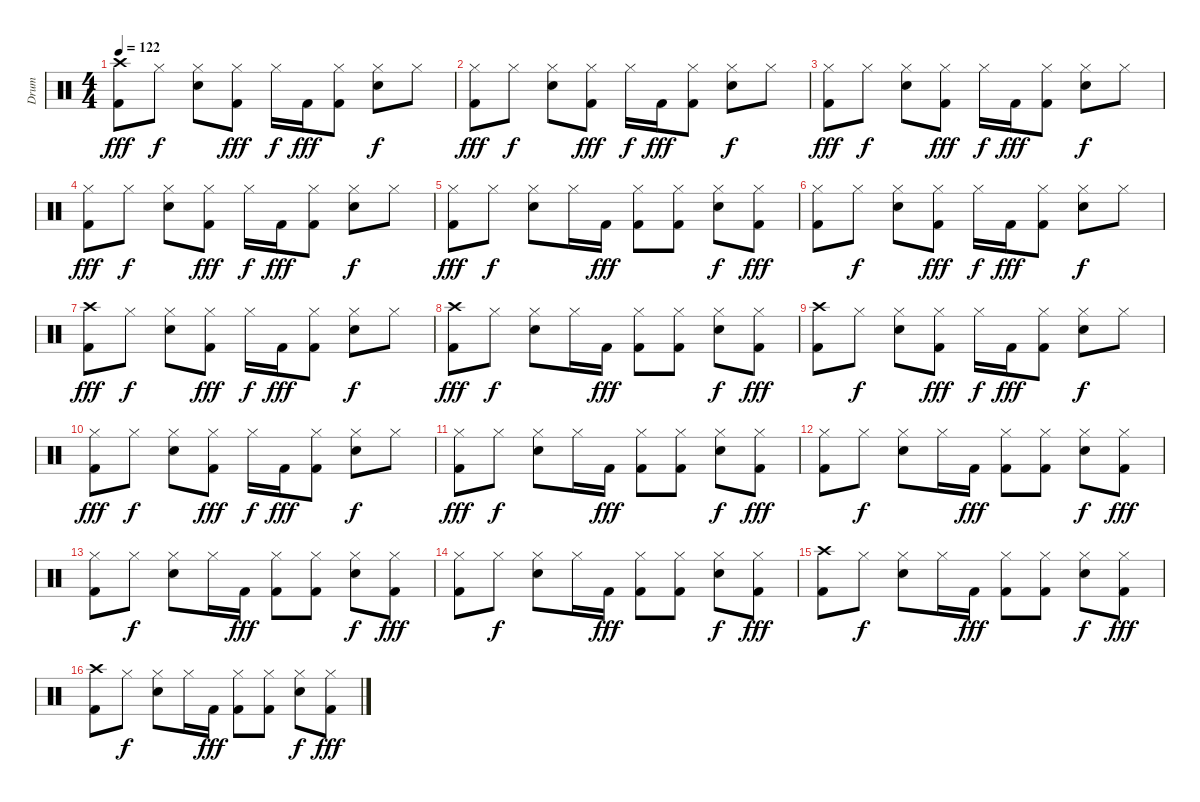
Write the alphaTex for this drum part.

\track ("Drum" "Drum") {instrument percussion}
\staff {score}
\articulation defaults
\ts (4 4)
\tempo 122
\clef neutral
\ks c
("Crash high (hit)" "Kick (hit) 2").8{dy fff} "Hi-Hat (closed)".8{dy f} ("Hi-Hat (closed)" "Snare (hit) 2").8 ("Hi-Hat (closed)" "Kick (hit) 2").8{dy fff} "Hi-Hat (closed)".16{dy f} "Kick (hit) 2".16{dy fff} ("Hi-Hat (closed)" "Kick (hit) 2").8 ("Hi-Hat (closed)" "Snare (hit) 2").8{dy f} "Hi-Hat (closed)".8 |
("Hi-Hat (closed)" "Kick (hit) 2").8{dy fff} "Hi-Hat (closed)".8{dy f} ("Hi-Hat (closed)" "Snare (hit) 2").8 ("Hi-Hat (closed)" "Kick (hit) 2").8{dy fff} "Hi-Hat (closed)".16{dy f} "Kick (hit) 2".16{dy fff} ("Hi-Hat (closed)" "Kick (hit) 2").8 ("Hi-Hat (closed)" "Snare (hit) 2").8{dy f} "Hi-Hat (closed)".8 |
("Hi-Hat (closed)" "Kick (hit) 2").8{dy fff} "Hi-Hat (closed)".8{dy f} ("Hi-Hat (closed)" "Snare (hit) 2").8 ("Hi-Hat (closed)" "Kick (hit) 2").8{dy fff} "Hi-Hat (closed)".16{dy f} "Kick (hit) 2".16{dy fff} ("Hi-Hat (closed)" "Kick (hit) 2").8 ("Hi-Hat (closed)" "Snare (hit) 2").8{dy f} "Hi-Hat (closed)".8 |
("Hi-Hat (closed)" "Kick (hit) 2").8{dy fff} "Hi-Hat (closed)".8{dy f} ("Hi-Hat (closed)" "Snare (hit) 2").8 ("Hi-Hat (closed)" "Kick (hit) 2").8{dy fff} "Hi-Hat (closed)".16{dy f} "Kick (hit) 2".16{dy fff} ("Hi-Hat (closed)" "Kick (hit) 2").8 ("Hi-Hat (closed)" "Snare (hit) 2").8{dy f} "Hi-Hat (closed)".8 |
("Hi-Hat (closed)" "Kick (hit) 2").8{dy fff} "Hi-Hat (closed)".8{dy f} ("Hi-Hat (closed)" "Snare (hit) 2").8 "Hi-Hat (closed)".16 "Kick (hit) 2".16{dy fff} ("Hi-Hat (closed)" "Kick (hit) 2").8 ("Hi-Hat (closed)" "Kick (hit) 2").8 ("Hi-Hat (closed)" "Snare (hit) 2").8{dy f} ("Hi-Hat (closed)" "Kick (hit) 2").8{dy fff} |
("Hi-Hat (closed)" "Kick (hit) 2").8 "Hi-Hat (closed)".8{dy f} ("Hi-Hat (closed)" "Snare (hit) 2").8 ("Hi-Hat (closed)" "Kick (hit) 2").8{dy fff} "Hi-Hat (closed)".16{dy f} "Kick (hit) 2".16{dy fff} ("Hi-Hat (closed)" "Kick (hit) 2").8 ("Hi-Hat (closed)" "Snare (hit) 2").8{dy f} "Hi-Hat (closed)".8 |
("Crash high (hit)" "Kick (hit) 2").8{dy fff} "Hi-Hat (closed)".8{dy f} ("Hi-Hat (closed)" "Snare (hit) 2").8 ("Hi-Hat (closed)" "Kick (hit) 2").8{dy fff} "Hi-Hat (closed)".16{dy f} "Kick (hit) 2".16{dy fff} ("Hi-Hat (closed)" "Kick (hit) 2").8 ("Hi-Hat (closed)" "Snare (hit) 2").8{dy f} "Hi-Hat (closed)".8 |
("Crash high (hit)" "Kick (hit) 2").8{dy fff} "Hi-Hat (closed)".8{dy f} ("Hi-Hat (closed)" "Snare (hit) 2").8 "Hi-Hat (closed)".16 "Kick (hit) 2".16{dy fff} ("Hi-Hat (closed)" "Kick (hit) 2").8 ("Hi-Hat (closed)" "Kick (hit) 2").8 ("Hi-Hat (closed)" "Snare (hit) 2").8{dy f} ("Hi-Hat (closed)" "Kick (hit) 2").8{dy fff} |
("Crash high (hit)" "Kick (hit) 2").8 "Hi-Hat (closed)".8{dy f} ("Hi-Hat (closed)" "Snare (hit) 2").8 ("Hi-Hat (closed)" "Kick (hit) 2").8{dy fff} "Hi-Hat (closed)".16{dy f} "Kick (hit) 2".16{dy fff} ("Hi-Hat (closed)" "Kick (hit) 2").8 ("Hi-Hat (closed)" "Snare (hit) 2").8{dy f} "Hi-Hat (closed)".8 |
("Hi-Hat (closed)" "Kick (hit) 2").8{dy fff} "Hi-Hat (closed)".8{dy f} ("Hi-Hat (closed)" "Snare (hit) 2").8 ("Hi-Hat (closed)" "Kick (hit) 2").8{dy fff} "Hi-Hat (closed)".16{dy f} "Kick (hit) 2".16{dy fff} ("Hi-Hat (closed)" "Kick (hit) 2").8 ("Hi-Hat (closed)" "Snare (hit) 2").8{dy f} "Hi-Hat (closed)".8 |
("Hi-Hat (closed)" "Kick (hit) 2").8{dy fff} "Hi-Hat (closed)".8{dy f} ("Hi-Hat (closed)" "Snare (hit) 2").8 "Hi-Hat (closed)".16 "Kick (hit) 2".16{dy fff} ("Hi-Hat (closed)" "Kick (hit) 2").8 ("Hi-Hat (closed)" "Kick (hit) 2").8 ("Hi-Hat (closed)" "Snare (hit) 2").8{dy f} ("Hi-Hat (closed)" "Kick (hit) 2").8{dy fff} |
("Hi-Hat (closed)" "Kick (hit) 2").8 "Hi-Hat (closed)".8{dy f} ("Hi-Hat (closed)" "Snare (hit) 2").8 "Hi-Hat (closed)".16 "Kick (hit) 2".16{dy fff} ("Hi-Hat (closed)" "Kick (hit) 2").8 ("Hi-Hat (closed)" "Kick (hit) 2").8 ("Hi-Hat (closed)" "Snare (hit) 2").8{dy f} ("Hi-Hat (closed)" "Kick (hit) 2").8{dy fff} |
("Hi-Hat (closed)" "Kick (hit) 2").8 "Hi-Hat (closed)".8{dy f} ("Hi-Hat (closed)" "Snare (hit) 2").8 "Hi-Hat (closed)".16 "Kick (hit) 2".16{dy fff} ("Hi-Hat (closed)" "Kick (hit) 2").8 ("Hi-Hat (closed)" "Kick (hit) 2").8 ("Hi-Hat (closed)" "Snare (hit) 2").8{dy f} ("Hi-Hat (closed)" "Kick (hit) 2").8{dy fff} |
("Hi-Hat (closed)" "Kick (hit) 2").8 "Hi-Hat (closed)".8{dy f} ("Hi-Hat (closed)" "Snare (hit) 2").8 "Hi-Hat (closed)".16 "Kick (hit) 2".16{dy fff} ("Hi-Hat (closed)" "Kick (hit) 2").8 ("Hi-Hat (closed)" "Kick (hit) 2").8 ("Hi-Hat (closed)" "Snare (hit) 2").8{dy f} ("Hi-Hat (closed)" "Kick (hit) 2").8{dy fff} |
("Crash high (hit)" "Kick (hit) 2").8 "Hi-Hat (closed)".8{dy f} ("Hi-Hat (closed)" "Snare (hit) 2").8 "Hi-Hat (closed)".16 "Kick (hit) 2".16{dy fff} ("Hi-Hat (closed)" "Kick (hit) 2").8 ("Hi-Hat (closed)" "Kick (hit) 2").8 ("Hi-Hat (closed)" "Snare (hit) 2").8{dy f} ("Hi-Hat (closed)" "Kick (hit) 2").8{dy fff} |
("Crash high (hit)" "Kick (hit) 2").8 "Hi-Hat (closed)".8{dy f} ("Hi-Hat (closed)" "Snare (hit) 2").8 "Hi-Hat (closed)".16 "Kick (hit) 2".16{dy fff} ("Hi-Hat (closed)" "Kick (hit) 2").8 ("Hi-Hat (closed)" "Kick (hit) 2").8 ("Hi-Hat (closed)" "Snare (hit) 2").8{dy f} ("Hi-Hat (closed)" "Kick (hit) 2").8{dy fff}
